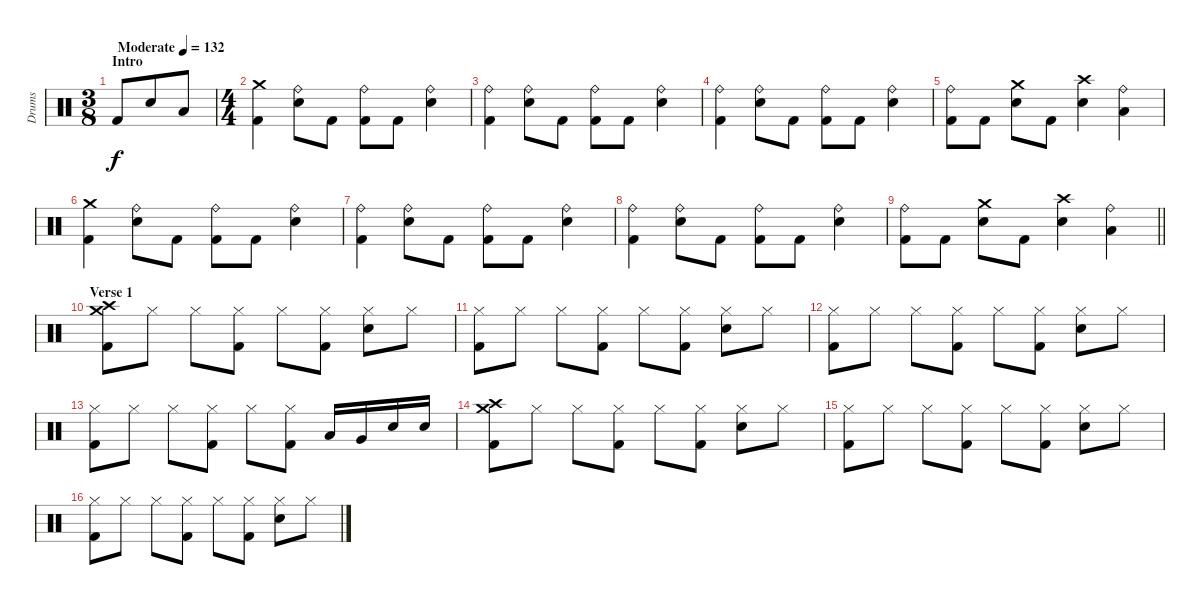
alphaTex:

\track ("Drums" "Drums") {instrument percussion}
\staff {score}
\articulation defaults
\ts (3 8)
\section ("" "Intro")
\tempo (132 "Moderate")
\clef neutral
\ks c "Kick (hit) 2".8{dy f} "Electric Snare (hit)".8 "Low Tom (hit)".8
|
\ts (4 4)
("Kick (hit) 2" "Crash medium (hit)").4 ("Electric Snare (hit)" "Ride (bell)").8 "Kick (hit) 2".8 ("Kick (hit) 2" "Ride (bell)").8 "Kick (hit) 2".8 ("Electric Snare (hit)" "Ride (bell)").4 |
("Kick (hit) 2" "Ride (bell)").4 ("Electric Snare (hit)" "Ride (bell)").8 "Kick (hit) 2".8 ("Kick (hit) 2" "Ride (bell)").8 "Kick (hit) 2".8 ("Electric Snare (hit)" "Ride (bell)").4 |
("Kick (hit) 2" "Ride (bell)").4 ("Electric Snare (hit)" "Ride (bell)").8 "Kick (hit) 2".8 ("Kick (hit) 2" "Ride (bell)").8 "Kick (hit) 2".8 ("Electric Snare (hit)" "Ride (bell)").4 |
("Kick (hit) 2" "Ride (bell)").8 "Kick (hit) 2".8 ("Electric Snare (hit)" "Crash medium (hit)").8 "Kick (hit) 2".8 ("Electric Snare (hit)" "Crash high (hit)").4 ("Low Tom (hit)" "Ride (bell)").4 |
("Kick (hit) 2" "Crash medium (hit)").4 ("Electric Snare (hit)" "Ride (bell)").8 "Kick (hit) 2".8 ("Kick (hit) 2" "Ride (bell)").8 "Kick (hit) 2".8 ("Electric Snare (hit)" "Ride (bell)").4 |
("Kick (hit) 2" "Ride (bell)").4 ("Electric Snare (hit)" "Ride (bell)").8 "Kick (hit) 2".8 ("Kick (hit) 2" "Ride (bell)").8 "Kick (hit) 2".8 ("Electric Snare (hit)" "Ride (bell)").4 |
("Kick (hit) 2" "Ride (bell)").4 ("Electric Snare (hit)" "Ride (bell)").8 "Kick (hit) 2".8 ("Kick (hit) 2" "Ride (bell)").8 "Kick (hit) 2".8 ("Electric Snare (hit)" "Ride (bell)").4 |
\barLineRight lightlight
("Kick (hit) 2" "Ride (bell)").8 "Kick (hit) 2".8 ("Electric Snare (hit)" "Crash medium (hit)").8 "Kick (hit) 2".8 ("Electric Snare (hit)" "Crash high (hit)").4 ("Low Tom (hit)" "Ride (bell)").4 |
\section ("" "Verse 1")
("Kick (hit) 2" "Crash high (hit)" "Crash medium (hit)").8 "Hi-Hat (closed)".8 "Hi-Hat (closed)".8 ("Kick (hit) 2" "Hi-Hat (closed)").8 "Hi-Hat (closed)".8 ("Kick (hit) 2" "Hi-Hat (closed)").8 ("Electric Snare (hit)" "Hi-Hat (closed)").8 "Hi-Hat (closed)".8 |
("Kick (hit) 2" "Hi-Hat (closed)").8 "Hi-Hat (closed)".8 "Hi-Hat (closed)".8 ("Kick (hit) 2" "Hi-Hat (closed)").8 "Hi-Hat (closed)".8 ("Kick (hit) 2" "Hi-Hat (closed)").8 ("Electric Snare (hit)" "Hi-Hat (closed)").8 "Hi-Hat (closed)".8 |
("Kick (hit) 2" "Hi-Hat (closed)").8 "Hi-Hat (closed)".8 "Hi-Hat (closed)".8 ("Kick (hit) 2" "Hi-Hat (closed)").8 "Hi-Hat (closed)".8 ("Kick (hit) 2" "Hi-Hat (closed)").8 ("Electric Snare (hit)" "Hi-Hat (closed)").8 "Hi-Hat (closed)".8 |
("Kick (hit) 2" "Hi-Hat (closed)").8 "Hi-Hat (closed)".8 "Hi-Hat (closed)".8 ("Kick (hit) 2" "Hi-Hat (closed)").8 "Hi-Hat (closed)".8 ("Kick (hit) 2" "Hi-Hat (closed)").8 "Low Tom (hit)".16 "Very Low Tom (hit)".16 "Electric Snare (hit)".16 "Electric Snare (hit)".16 |
("Kick (hit) 2" "Crash high (hit)" "Crash medium (hit)").8 "Hi-Hat (closed)".8 "Hi-Hat (closed)".8 ("Kick (hit) 2" "Hi-Hat (closed)").8 "Hi-Hat (closed)".8 ("Kick (hit) 2" "Hi-Hat (closed)").8 ("Electric Snare (hit)" "Hi-Hat (closed)").8 "Hi-Hat (closed)".8 |
("Kick (hit) 2" "Hi-Hat (closed)").8 "Hi-Hat (closed)".8 "Hi-Hat (closed)".8 ("Kick (hit) 2" "Hi-Hat (closed)").8 "Hi-Hat (closed)".8 ("Kick (hit) 2" "Hi-Hat (closed)").8 ("Electric Snare (hit)" "Hi-Hat (closed)").8 "Hi-Hat (closed)".8 |
("Kick (hit) 2" "Hi-Hat (closed)").8 "Hi-Hat (closed)".8 "Hi-Hat (closed)".8 ("Kick (hit) 2" "Hi-Hat (closed)").8 "Hi-Hat (closed)".8 ("Kick (hit) 2" "Hi-Hat (closed)").8 ("Electric Snare (hit)" "Hi-Hat (closed)").8 "Hi-Hat (closed)".8
